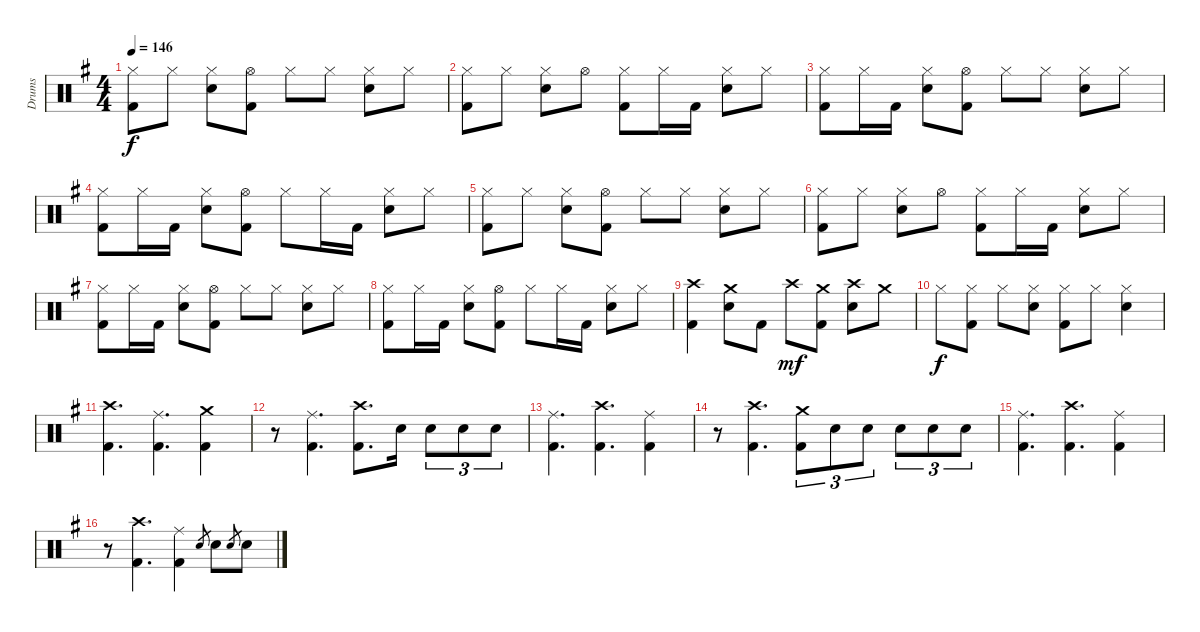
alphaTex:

\track ("Drums" "Drums") {instrument percussion}
\staff {score}
\articulation defaults
\ts (4 4)
\tempo 146
\clef neutral
\ks g
("Kick (hit) 2" "Hi-Hat (closed)").8{dy f} "Hi-Hat (closed)".8 ("Snare (hit) 2" "Hi-Hat (closed)").8 ("Kick (hit) 2" "Hi-Hat (open)").8 "Hi-Hat (closed)".8 "Hi-Hat (closed)".8 ("Snare (hit) 2" "Hi-Hat (closed)").8 "Hi-Hat (closed)".8 |
("Kick (hit) 2" "Hi-Hat (closed)").8 "Hi-Hat (closed)".8 ("Snare (hit) 2" "Hi-Hat (closed)").8 "Hi-Hat (open)".8 ("Kick (hit) 2" "Hi-Hat (closed)").8 "Hi-Hat (closed)".16 "Kick (hit) 2".16 ("Snare (hit) 2" "Hi-Hat (closed)").8 "Hi-Hat (closed)".8 |
("Kick (hit) 2" "Hi-Hat (closed)").8 "Hi-Hat (closed)".16 "Kick (hit) 2".16 ("Snare (hit) 2" "Hi-Hat (closed)").8 ("Kick (hit) 2" "Hi-Hat (open)").8 "Hi-Hat (closed)".8 "Hi-Hat (closed)".8 ("Snare (hit) 2" "Hi-Hat (closed)").8 "Hi-Hat (closed)".8 |
("Kick (hit) 2" "Hi-Hat (closed)").8 "Hi-Hat (closed)".16 "Kick (hit) 2".16 ("Snare (hit) 2" "Hi-Hat (closed)").8 ("Kick (hit) 2" "Hi-Hat (open)").8 "Hi-Hat (closed)".8 "Hi-Hat (closed)".16 "Kick (hit) 2".16 ("Snare (hit) 2" "Hi-Hat (closed)").8 "Hi-Hat (closed)".8 |
("Kick (hit) 2" "Hi-Hat (closed)").8 "Hi-Hat (closed)".8 ("Snare (hit) 2" "Hi-Hat (closed)").8 ("Kick (hit) 2" "Hi-Hat (open)").8 "Hi-Hat (closed)".8 "Hi-Hat (closed)".8 ("Snare (hit) 2" "Hi-Hat (closed)").8 "Hi-Hat (closed)".8 |
("Kick (hit) 2" "Hi-Hat (closed)").8 "Hi-Hat (closed)".8 ("Snare (hit) 2" "Hi-Hat (closed)").8 "Hi-Hat (open)".8 ("Kick (hit) 2" "Hi-Hat (closed)").8 "Hi-Hat (closed)".16 "Kick (hit) 2".16 ("Snare (hit) 2" "Hi-Hat (closed)").8 "Hi-Hat (closed)".8 |
("Kick (hit) 2" "Hi-Hat (closed)").8 "Hi-Hat (closed)".16 "Kick (hit) 2".16 ("Snare (hit) 2" "Hi-Hat (closed)").8 ("Kick (hit) 2" "Hi-Hat (open)").8 "Hi-Hat (closed)".8 "Hi-Hat (closed)".8 ("Snare (hit) 2" "Hi-Hat (closed)").8 "Hi-Hat (closed)".8 |
("Kick (hit) 2" "Hi-Hat (closed)").8 "Hi-Hat (closed)".16 "Kick (hit) 2".16 ("Snare (hit) 2" "Hi-Hat (closed)").8 ("Kick (hit) 2" "Hi-Hat (open)").8 "Hi-Hat (closed)".8 "Hi-Hat (closed)".16 "Kick (hit) 2".16 ("Snare (hit) 2" "Hi-Hat (closed)").8 "Hi-Hat (closed)".8 |
("Kick (hit) 2" "Crash high (hit)").4 ("Snare (hit) 2" "Crash medium (hit)").8 "Kick (hit) 2".8 "Crash high (hit)".8{dy mf} ("Kick (hit) 2" "Crash medium (hit)").8 ("Snare (hit) 2" "Crash high (hit)").8 "Crash medium (hit)".8 |
"Hi-Hat (closed)".8{dy f} ("Kick (hit) 2" "Hi-Hat (closed)").8 "Hi-Hat (closed)".8 ("Snare (hit) 2" "Hi-Hat (closed)").8 ("Kick (hit) 2" "Hi-Hat (closed)").8 "Hi-Hat (closed)".8 ("Snare (hit) 2" "Hi-Hat (closed)").4 |
("Kick (hit) 2" "Crash high (hit)").4{d} ("Kick (hit) 2" "Ride (middle)").4{d} ("Kick (hit) 2" "Crash medium (hit)").4 |
r.8 ("Kick (hit) 2" "Ride (middle)").4{d} ("Kick (hit) 2" "Crash high (hit)").8{d} "Snare (hit) 2".16 "Snare (hit) 2".8{tu (3 2)} "Snare (hit) 2".8{tu (3 2)} "Snare (hit) 2".8{tu (3 2)} |
("Kick (hit) 2" "Ride (middle)").4{d} ("Kick (hit) 2" "Crash high (hit)").4{d} ("Kick (hit) 2" "Ride (middle)").4 |
r.8 ("Kick (hit) 2" "Crash high (hit)").4{d} ("Kick (hit) 2" "Crash medium (hit)").8{tu (3 2)} "Snare (hit) 2".8{tu (3 2)} "Snare (hit) 2".8{tu (3 2)} "Snare (hit) 2".8{tu (3 2)} "Snare (hit) 2".8{tu (3 2)} "Snare (hit) 2".8{tu (3 2)} |
("Kick (hit) 2" "Ride (middle)").4{d} ("Kick (hit) 2" "Crash high (hit)").4{d} ("Kick (hit) 2" "Ride (middle)").4 |
r.8 ("Kick (hit) 2" "Crash high (hit)").4{d} ("Kick (hit) 2" "Ride (middle)").4 "Snare (hit) 2".8{gr} "Snare (hit) 2".8 "Snare (hit) 2".8{gr} "Snare (hit) 2".8
